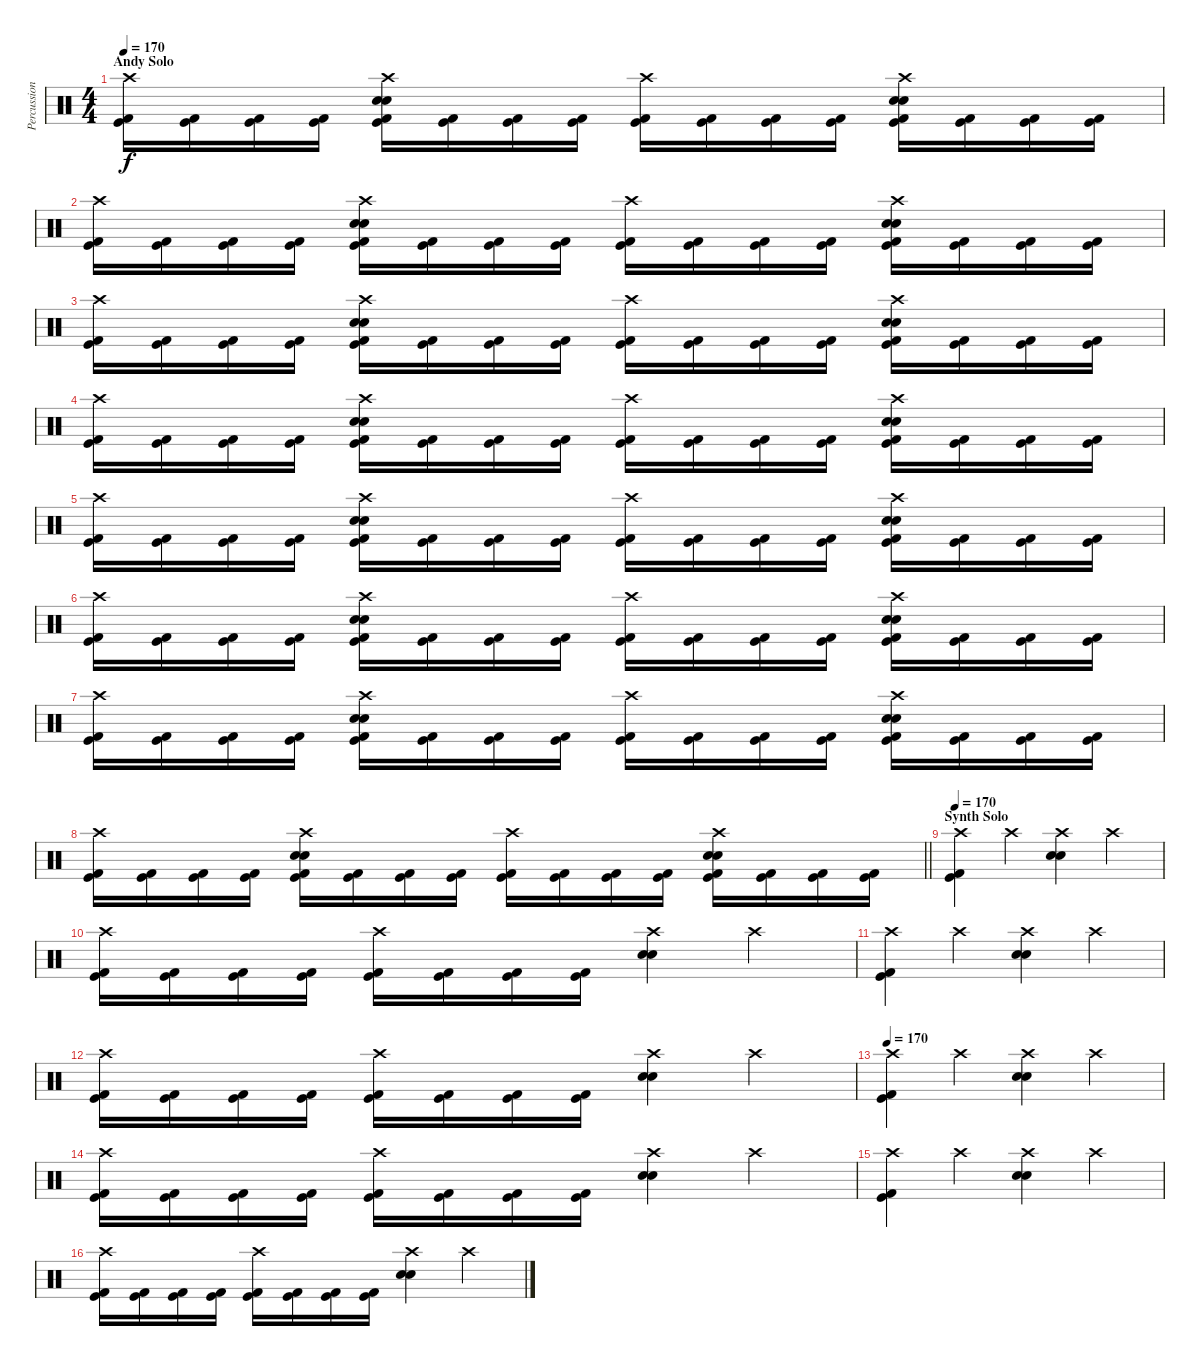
\track ("Percussion" "Percussion") {instrument percussion}
\staff {score}
\articulation defaults
\ts (4 4)
\section ("" "Andy Solo")
\tempo 170
\clef neutral
\ks c
("Crash high (hit)" "Kick (hit) 2" "Kick (hit)").16{dy f} ("Kick (hit) 2" "Kick (hit)").16 ("Kick (hit) 2" "Kick (hit)").16 ("Kick (hit) 2" "Kick (hit)").16 ("Crash high (hit)" "Electric Snare (hit)" "Electric Snare (hit)" "Kick (hit) 2" "Kick (hit)").16 ("Kick (hit) 2" "Kick (hit)").16 ("Kick (hit) 2" "Kick (hit)").16 ("Kick (hit) 2" "Kick (hit)").16 ("Crash high (hit)" "Kick (hit) 2" "Kick (hit)").16 ("Kick (hit) 2" "Kick (hit)").16 ("Kick (hit) 2" "Kick (hit)").16 ("Kick (hit) 2" "Kick (hit)").16 ("Crash high (hit)" "Electric Snare (hit)" "Electric Snare (hit)" "Kick (hit) 2" "Kick (hit)").16 ("Kick (hit) 2" "Kick (hit)").16 ("Kick (hit) 2" "Kick (hit)").16 ("Kick (hit) 2" "Kick (hit)").16 |
("Crash high (hit)" "Kick (hit) 2" "Kick (hit)").16 ("Kick (hit) 2" "Kick (hit)").16 ("Kick (hit) 2" "Kick (hit)").16 ("Kick (hit) 2" "Kick (hit)").16 ("Crash high (hit)" "Electric Snare (hit)" "Electric Snare (hit)" "Kick (hit) 2" "Kick (hit)").16 ("Kick (hit) 2" "Kick (hit)").16 ("Kick (hit) 2" "Kick (hit)").16 ("Kick (hit) 2" "Kick (hit)").16 ("Crash high (hit)" "Kick (hit) 2" "Kick (hit)").16 ("Kick (hit) 2" "Kick (hit)").16 ("Kick (hit) 2" "Kick (hit)").16 ("Kick (hit) 2" "Kick (hit)").16 ("Crash high (hit)" "Electric Snare (hit)" "Electric Snare (hit)" "Kick (hit) 2" "Kick (hit)").16 ("Kick (hit) 2" "Kick (hit)").16 ("Kick (hit) 2" "Kick (hit)").16 ("Kick (hit) 2" "Kick (hit)").16 |
("Crash high (hit)" "Kick (hit) 2" "Kick (hit)").16 ("Kick (hit) 2" "Kick (hit)").16 ("Kick (hit) 2" "Kick (hit)").16 ("Kick (hit) 2" "Kick (hit)").16 ("Crash high (hit)" "Electric Snare (hit)" "Electric Snare (hit)" "Kick (hit) 2" "Kick (hit)").16 ("Kick (hit) 2" "Kick (hit)").16 ("Kick (hit) 2" "Kick (hit)").16 ("Kick (hit) 2" "Kick (hit)").16 ("Crash high (hit)" "Kick (hit) 2" "Kick (hit)").16 ("Kick (hit) 2" "Kick (hit)").16 ("Kick (hit) 2" "Kick (hit)").16 ("Kick (hit) 2" "Kick (hit)").16 ("Crash high (hit)" "Electric Snare (hit)" "Electric Snare (hit)" "Kick (hit) 2" "Kick (hit)").16 ("Kick (hit) 2" "Kick (hit)").16 ("Kick (hit) 2" "Kick (hit)").16 ("Kick (hit) 2" "Kick (hit)").16 |
("Crash high (hit)" "Kick (hit) 2" "Kick (hit)").16 ("Kick (hit) 2" "Kick (hit)").16 ("Kick (hit) 2" "Kick (hit)").16 ("Kick (hit) 2" "Kick (hit)").16 ("Crash high (hit)" "Electric Snare (hit)" "Electric Snare (hit)" "Kick (hit) 2" "Kick (hit)").16 ("Kick (hit) 2" "Kick (hit)").16 ("Kick (hit) 2" "Kick (hit)").16 ("Kick (hit) 2" "Kick (hit)").16 ("Crash high (hit)" "Kick (hit) 2" "Kick (hit)").16 ("Kick (hit) 2" "Kick (hit)").16 ("Kick (hit) 2" "Kick (hit)").16 ("Kick (hit) 2" "Kick (hit)").16 ("Crash high (hit)" "Electric Snare (hit)" "Electric Snare (hit)" "Kick (hit) 2" "Kick (hit)").16 ("Kick (hit) 2" "Kick (hit)").16 ("Kick (hit) 2" "Kick (hit)").16 ("Kick (hit) 2" "Kick (hit)").16 |
("Crash high (hit)" "Kick (hit) 2" "Kick (hit)").16 ("Kick (hit) 2" "Kick (hit)").16 ("Kick (hit) 2" "Kick (hit)").16 ("Kick (hit) 2" "Kick (hit)").16 ("Crash high (hit)" "Electric Snare (hit)" "Electric Snare (hit)" "Kick (hit) 2" "Kick (hit)").16 ("Kick (hit) 2" "Kick (hit)").16 ("Kick (hit) 2" "Kick (hit)").16 ("Kick (hit) 2" "Kick (hit)").16 ("Crash high (hit)" "Kick (hit) 2" "Kick (hit)").16 ("Kick (hit) 2" "Kick (hit)").16 ("Kick (hit) 2" "Kick (hit)").16 ("Kick (hit) 2" "Kick (hit)").16 ("Crash high (hit)" "Electric Snare (hit)" "Electric Snare (hit)" "Kick (hit) 2" "Kick (hit)").16 ("Kick (hit) 2" "Kick (hit)").16 ("Kick (hit) 2" "Kick (hit)").16 ("Kick (hit) 2" "Kick (hit)").16 |
("Crash high (hit)" "Kick (hit) 2" "Kick (hit)").16 ("Kick (hit) 2" "Kick (hit)").16 ("Kick (hit) 2" "Kick (hit)").16 ("Kick (hit) 2" "Kick (hit)").16 ("Crash high (hit)" "Electric Snare (hit)" "Electric Snare (hit)" "Kick (hit) 2" "Kick (hit)").16 ("Kick (hit) 2" "Kick (hit)").16 ("Kick (hit) 2" "Kick (hit)").16 ("Kick (hit) 2" "Kick (hit)").16 ("Crash high (hit)" "Kick (hit) 2" "Kick (hit)").16 ("Kick (hit) 2" "Kick (hit)").16 ("Kick (hit) 2" "Kick (hit)").16 ("Kick (hit) 2" "Kick (hit)").16 ("Crash high (hit)" "Electric Snare (hit)" "Electric Snare (hit)" "Kick (hit) 2" "Kick (hit)").16 ("Kick (hit) 2" "Kick (hit)").16 ("Kick (hit) 2" "Kick (hit)").16 ("Kick (hit) 2" "Kick (hit)").16 |
("Crash high (hit)" "Kick (hit) 2" "Kick (hit)").16 ("Kick (hit) 2" "Kick (hit)").16 ("Kick (hit) 2" "Kick (hit)").16 ("Kick (hit) 2" "Kick (hit)").16 ("Crash high (hit)" "Electric Snare (hit)" "Electric Snare (hit)" "Kick (hit) 2" "Kick (hit)").16 ("Kick (hit) 2" "Kick (hit)").16 ("Kick (hit) 2" "Kick (hit)").16 ("Kick (hit) 2" "Kick (hit)").16 ("Crash high (hit)" "Kick (hit) 2" "Kick (hit)").16 ("Kick (hit) 2" "Kick (hit)").16 ("Kick (hit) 2" "Kick (hit)").16 ("Kick (hit) 2" "Kick (hit)").16 ("Crash high (hit)" "Electric Snare (hit)" "Electric Snare (hit)" "Kick (hit) 2" "Kick (hit)").16 ("Kick (hit) 2" "Kick (hit)").16 ("Kick (hit) 2" "Kick (hit)").16 ("Kick (hit) 2" "Kick (hit)").16 |
\barLineRight lightlight
("Crash high (hit)" "Kick (hit) 2" "Kick (hit)").16 ("Kick (hit) 2" "Kick (hit)").16 ("Kick (hit) 2" "Kick (hit)").16 ("Kick (hit) 2" "Kick (hit)").16 ("Crash high (hit)" "Electric Snare (hit)" "Electric Snare (hit)" "Kick (hit) 2" "Kick (hit)").16 ("Kick (hit) 2" "Kick (hit)").16 ("Kick (hit) 2" "Kick (hit)").16 ("Kick (hit) 2" "Kick (hit)").16 ("Crash high (hit)" "Kick (hit) 2" "Kick (hit)").16 ("Kick (hit) 2" "Kick (hit)").16 ("Kick (hit) 2" "Kick (hit)").16 ("Kick (hit) 2" "Kick (hit)").16 ("Crash high (hit)" "Electric Snare (hit)" "Electric Snare (hit)" "Kick (hit) 2" "Kick (hit)").16 ("Kick (hit) 2" "Kick (hit)").16 ("Kick (hit) 2" "Kick (hit)").16 ("Kick (hit) 2" "Kick (hit)").16 |
\section ("" "Synth Solo")
\tempo 170
("Crash high (hit)" "Kick (hit) 2" "Kick (hit)").4 "Crash high (hit)".4 ("Crash high (hit)" "Electric Snare (hit)" "Electric Snare (hit)").4 "Crash high (hit)".4 |
("Crash high (hit)" "Kick (hit) 2" "Kick (hit)").16 ("Kick (hit) 2" "Kick (hit)").16 ("Kick (hit) 2" "Kick (hit)").16 ("Kick (hit) 2" "Kick (hit)").16 ("Crash high (hit)" "Kick (hit) 2" "Kick (hit)").16 ("Kick (hit) 2" "Kick (hit)").16 ("Kick (hit) 2" "Kick (hit)").16 ("Kick (hit) 2" "Kick (hit)").16 ("Crash high (hit)" "Electric Snare (hit)" "Electric Snare (hit)").4 "Crash high (hit)".4 |
("Crash high (hit)" "Kick (hit) 2" "Kick (hit)").4 "Crash high (hit)".4 ("Crash high (hit)" "Electric Snare (hit)" "Electric Snare (hit)").4 "Crash high (hit)".4 |
("Crash high (hit)" "Kick (hit) 2" "Kick (hit)").16 ("Kick (hit) 2" "Kick (hit)").16 ("Kick (hit) 2" "Kick (hit)").16 ("Kick (hit) 2" "Kick (hit)").16 ("Crash high (hit)" "Kick (hit) 2" "Kick (hit)").16 ("Kick (hit) 2" "Kick (hit)").16 ("Kick (hit) 2" "Kick (hit)").16 ("Kick (hit) 2" "Kick (hit)").16 ("Crash high (hit)" "Electric Snare (hit)" "Electric Snare (hit)").4 "Crash high (hit)".4 |
\tempo 170
("Crash high (hit)" "Kick (hit) 2" "Kick (hit)").4 "Crash high (hit)".4 ("Crash high (hit)" "Electric Snare (hit)" "Electric Snare (hit)").4 "Crash high (hit)".4 |
("Crash high (hit)" "Kick (hit) 2" "Kick (hit)").16 ("Kick (hit) 2" "Kick (hit)").16 ("Kick (hit) 2" "Kick (hit)").16 ("Kick (hit) 2" "Kick (hit)").16 ("Crash high (hit)" "Kick (hit) 2" "Kick (hit)").16 ("Kick (hit) 2" "Kick (hit)").16 ("Kick (hit) 2" "Kick (hit)").16 ("Kick (hit) 2" "Kick (hit)").16 ("Crash high (hit)" "Electric Snare (hit)" "Electric Snare (hit)").4 "Crash high (hit)".4 |
("Crash high (hit)" "Kick (hit) 2" "Kick (hit)").4 "Crash high (hit)".4 ("Crash high (hit)" "Electric Snare (hit)" "Electric Snare (hit)").4 "Crash high (hit)".4 |
("Crash high (hit)" "Kick (hit) 2" "Kick (hit)").16 ("Kick (hit) 2" "Kick (hit)").16 ("Kick (hit) 2" "Kick (hit)").16 ("Kick (hit) 2" "Kick (hit)").16 ("Crash high (hit)" "Kick (hit) 2" "Kick (hit)").16 ("Kick (hit) 2" "Kick (hit)").16 ("Kick (hit) 2" "Kick (hit)").16 ("Kick (hit) 2" "Kick (hit)").16 ("Crash high (hit)" "Electric Snare (hit)" "Electric Snare (hit)").4 "Crash high (hit)".4
